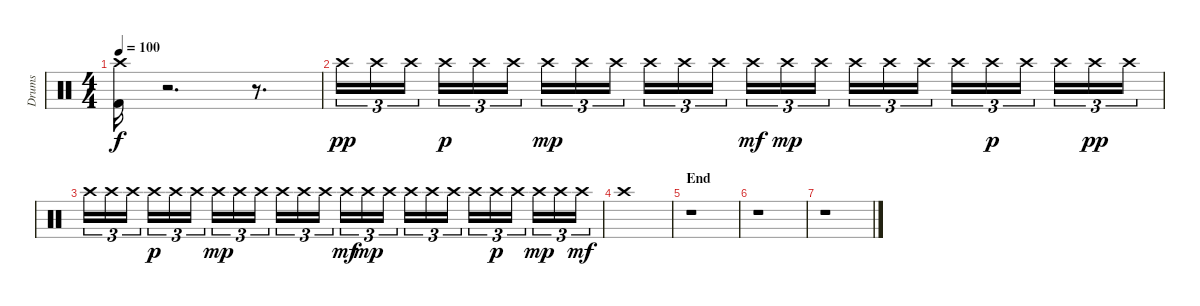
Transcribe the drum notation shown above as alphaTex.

\track ("Drums" "Drums") {instrument percussion}
\staff {score}
\articulation defaults
\ts (4 4)
\tempo 100
\clef neutral
\ks c
("Crash high (hit)" "Kick (hit) 2").16{dy f} r.2{d} r.8{d} |
"Crash high (hit)".16{tu (3 2) dy pp} "Crash high (hit)".16{tu (3 2)} "Crash high (hit)".16{tu (3 2)} "Crash high (hit)".16{tu (3 2) dy p} "Crash high (hit)".16{tu (3 2)} "Crash high (hit)".16{tu (3 2)} "Crash high (hit)".16{tu (3 2) dy mp} "Crash high (hit)".16{tu (3 2)} "Crash high (hit)".16{tu (3 2)} "Crash high (hit)".16{tu (3 2)} "Crash high (hit)".16{tu (3 2)} "Crash high (hit)".16{tu (3 2)} "Crash high (hit)".16{tu (3 2) dy mf} "Crash high (hit)".16{tu (3 2) dy mp} "Crash high (hit)".16{tu (3 2)} "Crash high (hit)".16{tu (3 2)} "Crash high (hit)".16{tu (3 2)} "Crash high (hit)".16{tu (3 2)} "Crash high (hit)".16{tu (3 2)} "Crash high (hit)".16{tu (3 2) dy p} "Crash high (hit)".16{tu (3 2)} "Crash high (hit)".16{tu (3 2)} "Crash high (hit)".16{tu (3 2) dy pp} "Crash high (hit)".16{tu (3 2)} |
"Crash high (hit)".16{tu (3 2)} "Crash high (hit)".16{tu (3 2)} "Crash high (hit)".16{tu (3 2)} "Crash high (hit)".16{tu (3 2) dy p} "Crash high (hit)".16{tu (3 2)} "Crash high (hit)".16{tu (3 2)} "Crash high (hit)".16{tu (3 2) dy mp} "Crash high (hit)".16{tu (3 2)} "Crash high (hit)".16{tu (3 2)} "Crash high (hit)".16{tu (3 2)} "Crash high (hit)".16{tu (3 2)} "Crash high (hit)".16{tu (3 2)} "Crash high (hit)".16{tu (3 2) dy mf} "Crash high (hit)".16{tu (3 2) dy mp} "Crash high (hit)".16{tu (3 2)} "Crash high (hit)".16{tu (3 2)} "Crash high (hit)".16{tu (3 2)} "Crash high (hit)".16{tu (3 2)} "Crash high (hit)".16{tu (3 2)} "Crash high (hit)".16{tu (3 2) dy p} "Crash high (hit)".16{tu (3 2)} "Crash high (hit)".16{tu (3 2) dy mp} "Crash high (hit)".16{tu (3 2)} "Crash high (hit)".16{tu (3 2) dy mf} |
"Crash high (hit)".1 |
\section ("" "End")
r.1 |
r.1 |
r.1
